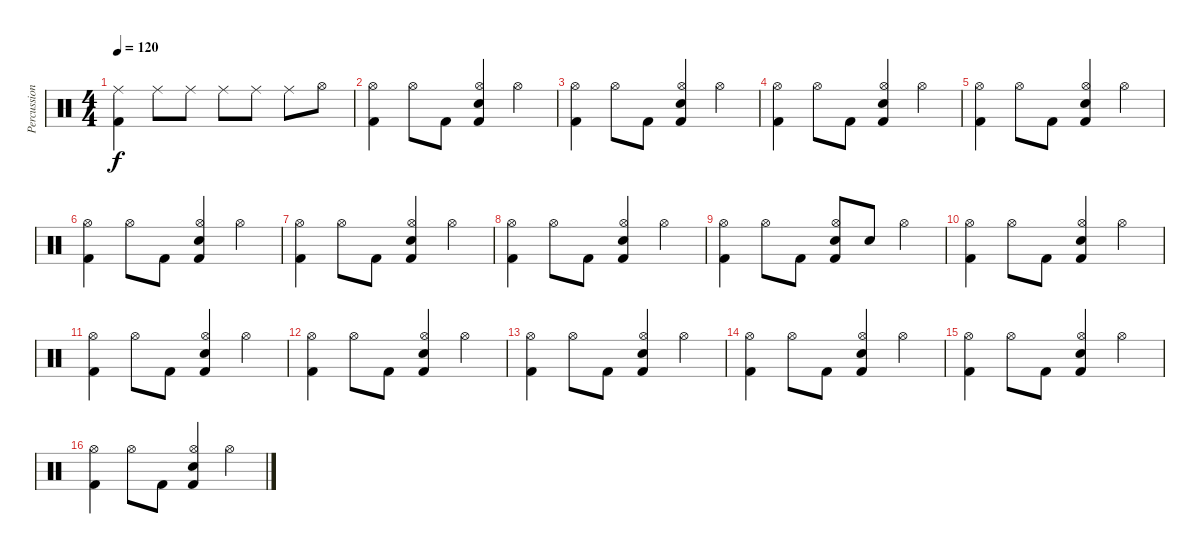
\track ("Percussion" "Percussion") {instrument percussion}
\staff {score}
\articulation defaults
\ts (4 4)
\tempo 120
\clef neutral
\ks c
("Kick (hit) 2" "Ride (middle)").4{dy f} "Ride (middle)".8 "Ride (middle)".8 "Ride (middle)".8 "Ride (middle)".8 "Ride (middle)".8 "Hi-Hat (open)".8 |
("Kick (hit) 2" "Hi-Hat (open)").4 "Hi-Hat (open)".8 "Kick (hit) 2".8 ("Kick (hit) 2" "Electric Snare (hit)" "Hi-Hat (open)").4 "Hi-Hat (open)".4 |
("Kick (hit) 2" "Hi-Hat (open)").4 "Hi-Hat (open)".8 "Kick (hit) 2".8 ("Kick (hit) 2" "Electric Snare (hit)" "Hi-Hat (open)").4 "Hi-Hat (open)".4 |
("Kick (hit) 2" "Hi-Hat (open)").4 "Hi-Hat (open)".8 "Kick (hit) 2".8 ("Kick (hit) 2" "Electric Snare (hit)" "Hi-Hat (open)").4 "Hi-Hat (open)".4 |
("Kick (hit) 2" "Hi-Hat (open)").4 "Hi-Hat (open)".8 "Kick (hit) 2".8 ("Kick (hit) 2" "Electric Snare (hit)" "Hi-Hat (open)").4 "Hi-Hat (open)".4 |
("Kick (hit) 2" "Hi-Hat (open)").4 "Hi-Hat (open)".8 "Kick (hit) 2".8 ("Kick (hit) 2" "Electric Snare (hit)" "Hi-Hat (open)").4 "Hi-Hat (open)".4 |
("Kick (hit) 2" "Hi-Hat (open)").4 "Hi-Hat (open)".8 "Kick (hit) 2".8 ("Kick (hit) 2" "Electric Snare (hit)" "Hi-Hat (open)").4 "Hi-Hat (open)".4 |
("Kick (hit) 2" "Hi-Hat (open)").4 "Hi-Hat (open)".8 "Kick (hit) 2".8 ("Kick (hit) 2" "Electric Snare (hit)" "Hi-Hat (open)").4 "Hi-Hat (open)".4 |
("Kick (hit) 2" "Hi-Hat (open)").4 "Hi-Hat (open)".8 "Kick (hit) 2".8 ("Kick (hit) 2" "Electric Snare (hit)" "Hi-Hat (open)").8 "Electric Snare (hit)".8 "Hi-Hat (open)".4 |
("Kick (hit) 2" "Hi-Hat (open)").4 "Hi-Hat (open)".8 "Kick (hit) 2".8 ("Kick (hit) 2" "Electric Snare (hit)" "Hi-Hat (open)").4 "Hi-Hat (open)".4 |
("Kick (hit) 2" "Hi-Hat (open)").4 "Hi-Hat (open)".8 "Kick (hit) 2".8 ("Kick (hit) 2" "Electric Snare (hit)" "Hi-Hat (open)").4 "Hi-Hat (open)".4 |
("Kick (hit) 2" "Hi-Hat (open)").4 "Hi-Hat (open)".8 "Kick (hit) 2".8 ("Kick (hit) 2" "Electric Snare (hit)" "Hi-Hat (open)").4 "Hi-Hat (open)".4 |
("Kick (hit) 2" "Hi-Hat (open)").4 "Hi-Hat (open)".8 "Kick (hit) 2".8 ("Kick (hit) 2" "Electric Snare (hit)" "Hi-Hat (open)").4 "Hi-Hat (open)".4 |
("Kick (hit) 2" "Hi-Hat (open)").4 "Hi-Hat (open)".8 "Kick (hit) 2".8 ("Kick (hit) 2" "Electric Snare (hit)" "Hi-Hat (open)").4 "Hi-Hat (open)".4 |
("Kick (hit) 2" "Hi-Hat (open)").4 "Hi-Hat (open)".8 "Kick (hit) 2".8 ("Kick (hit) 2" "Electric Snare (hit)" "Hi-Hat (open)").4 "Hi-Hat (open)".4 |
("Kick (hit) 2" "Hi-Hat (open)").4 "Hi-Hat (open)".8 "Kick (hit) 2".8 ("Kick (hit) 2" "Electric Snare (hit)" "Hi-Hat (open)").4 "Hi-Hat (open)".4
